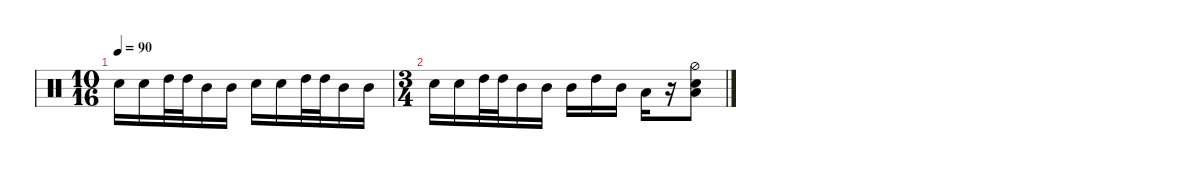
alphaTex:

\defaultSystemsLayout 4
\hideDynamics
\bracketExtendMode nobrackets
\singleTrackTrackNamePolicy hidden
\multiTrackTrackNamePolicy hidden
\otherSystemsTrackNameOrientation horizontal
\track ("Drumkit" "drm.") {instrument percussion}
\staff {score}
\articulation defaults
\ts (10 16)
\beaming (8 2 2 1)
\tempo 90
\clef neutral
\ks c "Snare (hit) 2".16{dy mf beam Down beam merge} "Snare (hit) 2".16{beam Down beam merge} "High Tom (hit)".32{beam Down beam merge} "High Tom (hit)".32{beam Down} "Mid Tom (hit)".16{beam Down beam merge} "Mid Tom (hit)".16{beam Down beam split} "Snare (hit) 2".16{beam Down beam merge} "Snare (hit) 2".16{beam Down beam merge} "High Tom (hit)".32{beam Down beam merge} "High Tom (hit)".32{beam Down beam merge} "Mid Tom (hit)".16{beam Down beam merge} "Mid Tom (hit)".16{beam Down}
|
\ts (3 4)
\beaming (8 2 2 2)
"Snare (hit) 2".16{beam Down beam merge} "Snare (hit) 2".16{beam Down beam merge} "High Tom (hit)".32{beam Down beam merge} "High Tom (hit)".32{beam Down} "Mid Tom (hit)".16{beam Down beam merge} "Mid Tom (hit)".16{beam Down beam split} "Mid Tom (hit)".16{beam Down} "High Tom (hit)".16{beam Down} "Mid Tom (hit)".16{beam Down} "Low Tom (hit)".16{dy fff beam Down} r.16{beam Down} ("Low Tom (hit)" "Snare (hit) 2" "Hi-Hat (half)").8{beam Down}
